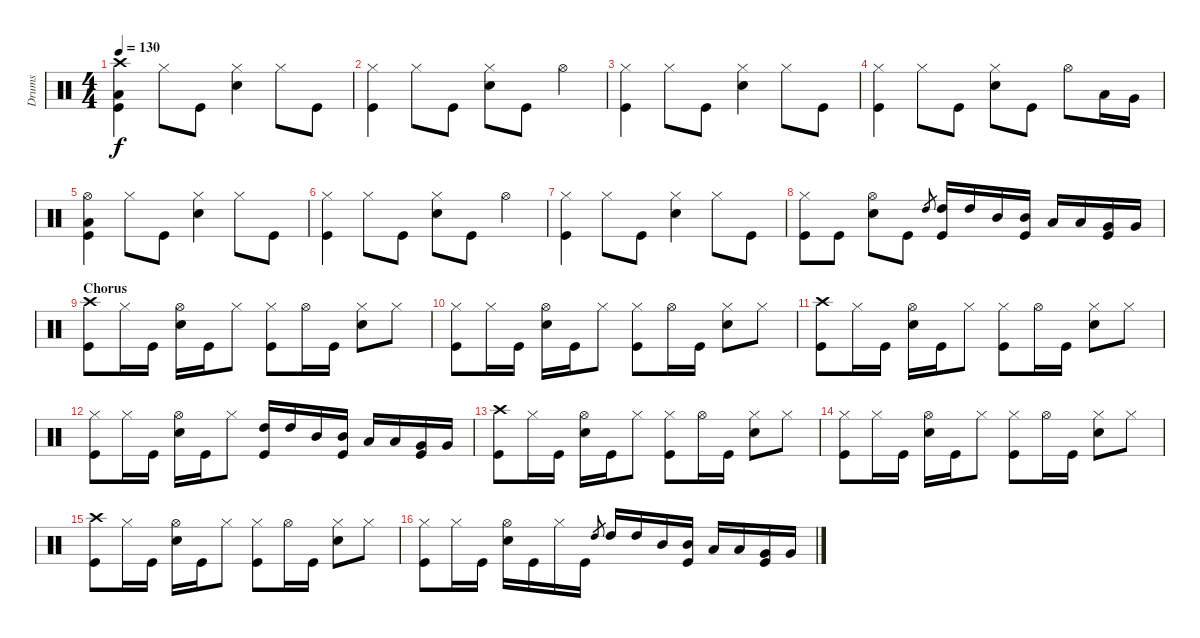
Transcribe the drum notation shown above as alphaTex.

\track ("Drums" "Drums") {instrument percussion}
\staff {score}
\articulation defaults
\ts (4 4)
\tempo 130
\clef neutral
\ks c
("Crash high (hit)" "Low Floor Tom (hit)" "Kick (hit)").4{dy f} "Hi-Hat (closed)".8 "Kick (hit)".8 ("Hi-Hat (closed)" "Snare (hit) 2").4 "Hi-Hat (closed)".8 "Kick (hit)".8 |
("Hi-Hat (closed)" "Kick (hit)").4 "Hi-Hat (closed)".8 "Kick (hit)".8 ("Hi-Hat (closed)" "Snare (hit) 2").8 "Kick (hit)".8 "Hi-Hat (open)".4 |
("Hi-Hat (closed)" "Kick (hit)").4 "Hi-Hat (closed)".8 "Kick (hit)".8 ("Hi-Hat (closed)" "Snare (hit) 2").4 "Hi-Hat (closed)".8 "Kick (hit)".8 |
("Hi-Hat (closed)" "Kick (hit)").4 "Hi-Hat (closed)".8 "Kick (hit)".8 ("Hi-Hat (closed)" "Snare (hit) 2").8 "Kick (hit)".8 "Hi-Hat (open)".8 "Low Tom (hit)".16 "Very Low Tom (hit)".16 |
("Hi-Hat (open)" "Low Floor Tom (hit)" "Kick (hit)").4 "Hi-Hat (closed)".8 "Kick (hit)".8 ("Hi-Hat (closed)" "Snare (hit) 2").4 "Hi-Hat (closed)".8 "Kick (hit)".8 |
("Hi-Hat (closed)" "Kick (hit)").4 "Hi-Hat (closed)".8 "Kick (hit)".8 ("Hi-Hat (closed)" "Snare (hit) 2").8 "Kick (hit)".8 "Hi-Hat (open)".4 |
("Hi-Hat (closed)" "Kick (hit)").4 "Hi-Hat (closed)".8 "Kick (hit)".8 ("Hi-Hat (closed)" "Snare (hit) 2").4 "Hi-Hat (closed)".8 "Kick (hit)".8 |
("Hi-Hat (closed)" "Kick (hit)").8 "Kick (hit)".8 ("Hi-Hat (open)" "Snare (hit) 2").8 "Kick (hit)".8 "High Tom (hit)".8{gr} ("High Tom (hit)" "Kick (hit)").16 "High Tom (hit)".16 "Mid Tom (hit)".16 ("Mid Tom (hit)" "Kick (hit)").16 "Low Tom (hit)".16 "Low Tom (hit)".16 ("Very Low Tom (hit)" "Kick (hit)").16 "Very Low Tom (hit)".16 |
\section ("" "Chorus")
("Crash high (hit)" "Kick (hit)").8 "Hi-Hat (closed)".16 "Kick (hit)".16 ("Hi-Hat (open)" "Snare (hit) 2").16 "Kick (hit)".16 "Hi-Hat (closed)".8 ("Hi-Hat (closed)" "Kick (hit)").8 "Hi-Hat (open)".16 "Kick (hit)".16 ("Hi-Hat (closed)" "Snare (hit) 2").8 "Hi-Hat (closed)".8 |
("Hi-Hat (closed)" "Kick (hit)").8 "Hi-Hat (closed)".16 "Kick (hit)".16 ("Hi-Hat (open)" "Snare (hit) 2").16 "Kick (hit)".16 "Hi-Hat (closed)".8 ("Hi-Hat (closed)" "Kick (hit)").8 "Hi-Hat (open)".16 "Kick (hit)".16 ("Hi-Hat (closed)" "Snare (hit) 2").8 "Hi-Hat (closed)".8 |
("Crash high (hit)" "Kick (hit)").8 "Hi-Hat (closed)".16 "Kick (hit)".16 ("Hi-Hat (open)" "Snare (hit) 2").16 "Kick (hit)".16 "Hi-Hat (closed)".8 ("Hi-Hat (closed)" "Kick (hit)").8 "Hi-Hat (open)".16 "Kick (hit)".16 ("Hi-Hat (closed)" "Snare (hit) 2").8 "Hi-Hat (closed)".8 |
("Hi-Hat (closed)" "Kick (hit)").8 "Hi-Hat (closed)".16 "Kick (hit)".16 ("Hi-Hat (open)" "Snare (hit) 2").16 "Kick (hit)".16 "Hi-Hat (closed)".8 ("High Tom (hit)" "Kick (hit)").16 "High Tom (hit)".16 "Mid Tom (hit)".16 ("Mid Tom (hit)" "Kick (hit)").16 "Low Tom (hit)".16 "Low Tom (hit)".16 ("Very Low Tom (hit)" "Kick (hit)").16 "Very Low Tom (hit)".16 |
("Crash high (hit)" "Kick (hit)").8 "Hi-Hat (closed)".16 "Kick (hit)".16 ("Hi-Hat (open)" "Snare (hit) 2").16 "Kick (hit)".16 "Hi-Hat (closed)".8 ("Hi-Hat (closed)" "Kick (hit)").8 "Hi-Hat (open)".16 "Kick (hit)".16 ("Hi-Hat (closed)" "Snare (hit) 2").8 "Hi-Hat (closed)".8 |
("Hi-Hat (closed)" "Kick (hit)").8 "Hi-Hat (closed)".16 "Kick (hit)".16 ("Hi-Hat (open)" "Snare (hit) 2").16 "Kick (hit)".16 "Hi-Hat (closed)".8 ("Hi-Hat (closed)" "Kick (hit)").8 "Hi-Hat (open)".16 "Kick (hit)".16 ("Hi-Hat (closed)" "Snare (hit) 2").8 "Hi-Hat (closed)".8 |
("Crash high (hit)" "Kick (hit)").8 "Hi-Hat (closed)".16 "Kick (hit)".16 ("Hi-Hat (open)" "Snare (hit) 2").16 "Kick (hit)".16 "Hi-Hat (closed)".8 ("Hi-Hat (closed)" "Kick (hit)").8 "Hi-Hat (open)".16 "Kick (hit)".16 ("Hi-Hat (closed)" "Snare (hit) 2").8 "Hi-Hat (closed)".8 |
("Hi-Hat (closed)" "Kick (hit)").8 "Hi-Hat (closed)".16 "Kick (hit)".16 ("Hi-Hat (open)" "Snare (hit) 2").16 "Kick (hit)".16 "Hi-Hat (closed)".16 "Kick (hit)".16 "High Tom (hit)".8{gr} "High Tom (hit)".16 "High Tom (hit)".16 "Mid Tom (hit)".16 ("Mid Tom (hit)" "Kick (hit)").16 "Low Tom (hit)".16 "Low Tom (hit)".16 ("Very Low Tom (hit)" "Kick (hit)").16 "Very Low Tom (hit)".16
